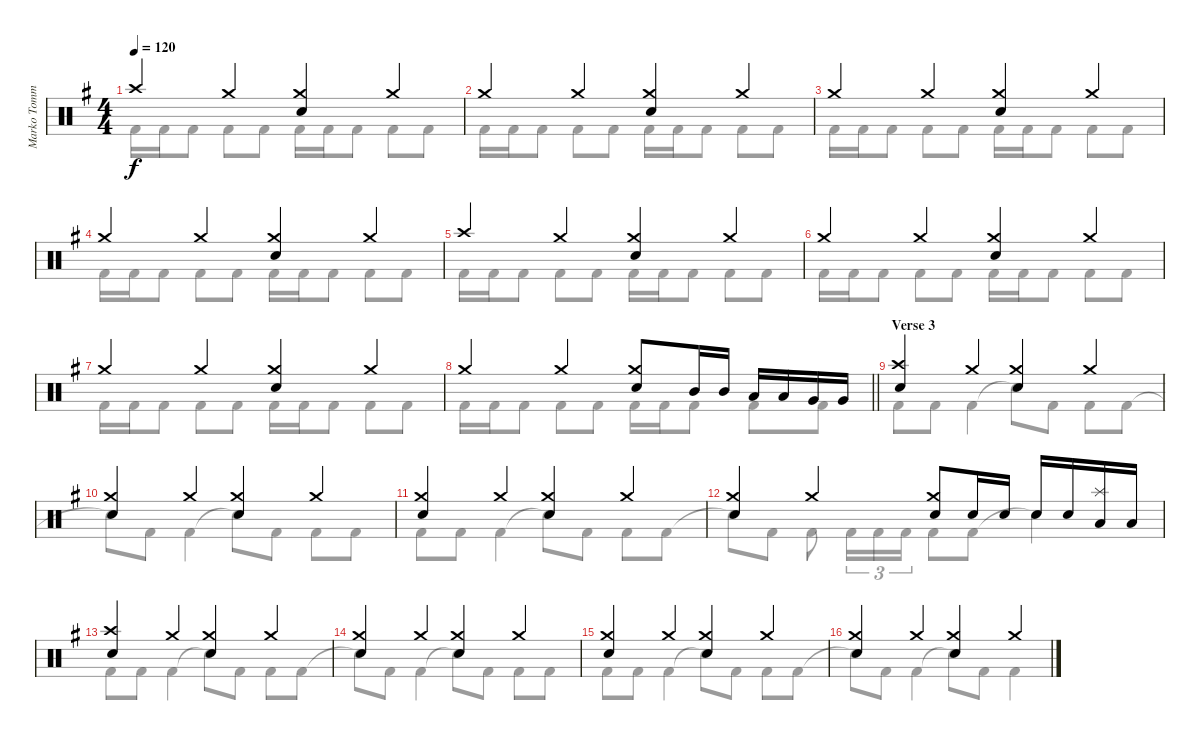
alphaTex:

\track ("Marko Tommila (drums)" "Marko Tomm") {instrument percussion}
\staff {score}
\articulation defaults
\voice
\ts (4 4)
\tempo 120
\clef neutral
\ks eminor "Crash high (hit)".4{dy f} "Crash medium (hit)".4
("Crash medium (hit)" "Electric Snare (hit)").4 "Crash medium (hit)".4 |
"Crash medium (hit)".4 "Crash medium (hit)".4 ("Crash medium (hit)" "Electric Snare (hit)").4 "Crash medium (hit)".4 |
"Crash medium (hit)".4 "Crash medium (hit)".4 ("Crash medium (hit)" "Electric Snare (hit)").4 "Crash medium (hit)".4 |
"Crash medium (hit)".4 "Crash medium (hit)".4 ("Crash medium (hit)" "Electric Snare (hit)").4 "Crash medium (hit)".4 |
"Crash high (hit)".4 "Crash medium (hit)".4 ("Crash medium (hit)" "Electric Snare (hit)").4 "Crash medium (hit)".4 |
"Crash medium (hit)".4 "Crash medium (hit)".4 ("Crash medium (hit)" "Electric Snare (hit)").4 "Crash medium (hit)".4 |
"Crash medium (hit)".4 "Crash medium (hit)".4 ("Crash medium (hit)" "Electric Snare (hit)").4 "Crash medium (hit)".4 |
\barLineRight lightlight "Crash medium (hit)".4 "Crash medium (hit)".4
("Crash medium (hit)" "Electric Snare (hit)").8 "Mid Tom (hit)".16 "Mid Tom (hit)".16 "Low Tom (hit)".16 "Low Tom (hit)".16 "Very Low Tom (hit)".16 "Very Low Tom (hit)".16 |
\section ("" "Verse 3")
("Crash high (hit)" "Electric Snare (hit)").4 "Crash medium (hit)".4 ("Crash medium (hit)" "Electric Snare (hit)").4 "Crash medium (hit)".4 |
("Crash medium (hit)" "Electric Snare (hit)").4 "Crash medium (hit)".4 ("Crash medium (hit)" "Electric Snare (hit)").4 "Crash medium (hit)".4 |
("Crash medium (hit)" "Electric Snare (hit)").4 "Crash medium (hit)".4 ("Crash medium (hit)" "Electric Snare (hit)").4 "Crash medium (hit)".4 |
("Crash medium (hit)" "Electric Snare (hit)").4 "Crash medium (hit)".4 ("Crash medium (hit)" "Electric Snare (hit)").8 "Electric Snare (hit)".16 "Electric Snare (hit)".16 "Electric Snare (hit)".16 "Electric Snare (hit)".16 ("Low Tom (hit)" "Splash (hit)").16 "Low Tom (hit)".16 |
("Crash high (hit)" "Electric Snare (hit)").4 "Crash medium (hit)".4 ("Crash medium (hit)" "Electric Snare (hit)").4 "Crash medium (hit)".4 |
("Crash medium (hit)" "Electric Snare (hit)").4 "Crash medium (hit)".4 ("Crash medium (hit)" "Electric Snare (hit)").4 "Crash medium (hit)".4 |
("Crash medium (hit)" "Electric Snare (hit)").4 "Crash medium (hit)".4 ("Crash medium (hit)" "Electric Snare (hit)").4 "Crash medium (hit)".4 |
("Crash medium (hit)" "Electric Snare (hit)").4 "Crash medium (hit)".4 ("Crash medium (hit)" "Electric Snare (hit)").4 "Crash medium (hit)".4
\voice
\clef neutral
\ottava regular
\simile none
\ks eminor "Kick (hit) 2".16{dy f} "Kick (hit) 2".16 "Kick (hit) 2".8 "Kick (hit) 2".8 "Kick (hit) 2".8 "Kick (hit) 2".16 "Kick (hit) 2".16 "Kick (hit) 2".8 "Kick (hit) 2".8 "Kick (hit) 2".8
|
"Kick (hit) 2".16 "Kick (hit) 2".16 "Kick (hit) 2".8 "Kick (hit) 2".8 "Kick (hit) 2".8 "Kick (hit) 2".16 "Kick (hit) 2".16 "Kick (hit) 2".8 "Kick (hit) 2".8 "Kick (hit) 2".8 |
"Kick (hit) 2".16 "Kick (hit) 2".16 "Kick (hit) 2".8 "Kick (hit) 2".8 "Kick (hit) 2".8 "Kick (hit) 2".16 "Kick (hit) 2".16 "Kick (hit) 2".8 "Kick (hit) 2".8 "Kick (hit) 2".8 |
"Kick (hit) 2".16 "Kick (hit) 2".16 "Kick (hit) 2".8 "Kick (hit) 2".8 "Kick (hit) 2".8 "Kick (hit) 2".16 "Kick (hit) 2".16 "Kick (hit) 2".8 "Kick (hit) 2".8 "Kick (hit) 2".8 |
"Kick (hit) 2".16 "Kick (hit) 2".16 "Kick (hit) 2".8 "Kick (hit) 2".8 "Kick (hit) 2".8 "Kick (hit) 2".16 "Kick (hit) 2".16 "Kick (hit) 2".8 "Kick (hit) 2".8 "Kick (hit) 2".8 |
"Kick (hit) 2".16 "Kick (hit) 2".16 "Kick (hit) 2".8 "Kick (hit) 2".8 "Kick (hit) 2".8 "Kick (hit) 2".16 "Kick (hit) 2".16 "Kick (hit) 2".8 "Kick (hit) 2".8 "Kick (hit) 2".8 |
"Kick (hit) 2".16 "Kick (hit) 2".16 "Kick (hit) 2".8 "Kick (hit) 2".8 "Kick (hit) 2".8 "Kick (hit) 2".16 "Kick (hit) 2".16 "Kick (hit) 2".8 "Kick (hit) 2".8 "Kick (hit) 2".8 |
\barLineRight lightlight "Kick (hit) 2".16 "Kick (hit) 2".16 "Kick (hit) 2".8 "Kick (hit) 2".8 "Kick (hit) 2".8 "Kick (hit) 2".16 "Kick (hit) 2".16 "Kick (hit) 2".8 "Kick (hit) 2".8 "Kick (hit) 2".8
|
"Kick (hit) 2".8 "Kick (hit) 2".8 "Kick (hit) 2".4 "Snare (hit)"{t}.8 "Kick (hit) 2".8 "Kick (hit) 2".8 "Kick (hit) 2".8 |
"Snare (hit)"{t}.8 "Kick (hit) 2".8 "Kick (hit) 2".4 "Snare (hit)"{t}.8 "Kick (hit) 2".8 "Kick (hit) 2".8 "Kick (hit) 2".8 |
"Kick (hit) 2".8 "Kick (hit) 2".8 "Kick (hit) 2".4 "Snare (hit)"{t}.8 "Kick (hit) 2".8 "Kick (hit) 2".8 "Kick (hit) 2".8 |
"Snare (hit)"{t}.8 "Kick (hit) 2".8 "Kick (hit) 2".8 "Kick (hit) 2".16{tu (3 2)} "Kick (hit) 2".16{tu (3 2)} "Kick (hit) 2".16{tu (3 2)} "Kick (hit) 2".8 "Kick (hit) 2".8 "Snare (hit)"{t}.4 |
"Kick (hit) 2".8 "Kick (hit) 2".8 "Kick (hit) 2".4 "Snare (hit)"{t}.8 "Kick (hit) 2".8 "Kick (hit) 2".8 "Kick (hit) 2".8 |
"Snare (hit)"{t}.8 "Kick (hit) 2".8 "Kick (hit) 2".4 "Snare (hit)"{t}.8 "Kick (hit) 2".8 "Kick (hit) 2".8 "Kick (hit) 2".8 |
"Kick (hit) 2".8 "Kick (hit) 2".8 "Kick (hit) 2".4 "Snare (hit)"{t}.8 "Kick (hit) 2".8 "Kick (hit) 2".8 "Kick (hit) 2".8 |
"Snare (hit)"{t}.8 "Kick (hit) 2".8 "Kick (hit) 2".4 "Snare (hit)"{t}.8 "Kick (hit) 2".8 "Kick (hit) 2".4
